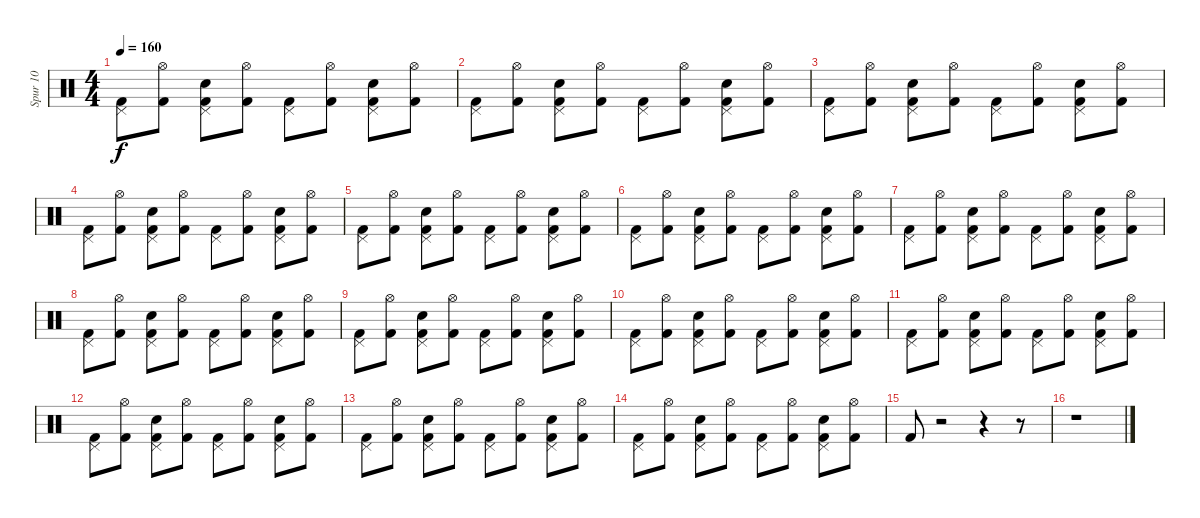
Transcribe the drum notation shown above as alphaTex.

\track ("Spur 10" "Spur 10") {instrument percussion}
\staff {score}
\articulation defaults
\ts (4 4)
\tempo 160
\clef neutral
\ks c
("Kick (hit) 2" "Pedal Hi-Hat (hit)").8{dy f} ("Kick (hit) 2" "Hi-Hat (open)").8 ("Pedal Hi-Hat (hit)" "Kick (hit) 2" "Snare (hit) 2").8 ("Kick (hit) 2" "Hi-Hat (open)").8 ("Kick (hit) 2" "Pedal Hi-Hat (hit)").8 ("Hi-Hat (open)" "Kick (hit) 2").8 ("Kick (hit) 2" "Snare (hit) 2" "Pedal Hi-Hat (hit)").8 ("Hi-Hat (open)" "Kick (hit) 2").8 |
("Pedal Hi-Hat (hit)" "Kick (hit) 2").8 ("Hi-Hat (open)" "Kick (hit) 2").8 ("Kick (hit) 2" "Pedal Hi-Hat (hit)" "Snare (hit) 2").8 ("Kick (hit) 2" "Hi-Hat (open)").8 ("Pedal Hi-Hat (hit)" "Kick (hit) 2").8 ("Hi-Hat (open)" "Kick (hit) 2").8 ("Pedal Hi-Hat (hit)" "Kick (hit) 2" "Snare (hit) 2").8 ("Hi-Hat (open)" "Kick (hit) 2").8 |
("Pedal Hi-Hat (hit)" "Kick (hit) 2").8 ("Kick (hit) 2" "Hi-Hat (open)").8 ("Kick (hit) 2" "Snare (hit) 2" "Pedal Hi-Hat (hit)").8 ("Hi-Hat (open)" "Kick (hit) 2").8 ("Kick (hit) 2" "Pedal Hi-Hat (hit)").8 ("Hi-Hat (open)" "Kick (hit) 2").8 ("Kick (hit) 2" "Pedal Hi-Hat (hit)" "Snare (hit) 2").8 ("Hi-Hat (open)" "Kick (hit) 2").8 |
("Kick (hit) 2" "Pedal Hi-Hat (hit)").8 ("Hi-Hat (open)" "Kick (hit) 2").8 ("Snare (hit) 2" "Pedal Hi-Hat (hit)" "Kick (hit) 2").8 ("Hi-Hat (open)" "Kick (hit) 2").8 ("Kick (hit) 2" "Pedal Hi-Hat (hit)").8 ("Kick (hit) 2" "Hi-Hat (open)").8 ("Pedal Hi-Hat (hit)" "Kick (hit) 2" "Snare (hit) 2").8 ("Kick (hit) 2" "Hi-Hat (open)").8 |
("Kick (hit) 2" "Pedal Hi-Hat (hit)").8 ("Kick (hit) 2" "Hi-Hat (open)").8 ("Pedal Hi-Hat (hit)" "Kick (hit) 2" "Snare (hit) 2").8 ("Hi-Hat (open)" "Kick (hit) 2").8 ("Kick (hit) 2" "Pedal Hi-Hat (hit)").8 ("Hi-Hat (open)" "Kick (hit) 2").8 ("Pedal Hi-Hat (hit)" "Snare (hit) 2" "Kick (hit) 2").8 ("Hi-Hat (open)" "Kick (hit) 2").8 |
("Kick (hit) 2" "Pedal Hi-Hat (hit)").8 ("Kick (hit) 2" "Hi-Hat (open)").8 ("Snare (hit) 2" "Kick (hit) 2" "Pedal Hi-Hat (hit)").8 ("Hi-Hat (open)" "Kick (hit) 2").8 ("Kick (hit) 2" "Pedal Hi-Hat (hit)").8 ("Hi-Hat (open)" "Kick (hit) 2").8 ("Pedal Hi-Hat (hit)" "Kick (hit) 2" "Snare (hit) 2").8 ("Kick (hit) 2" "Hi-Hat (open)").8 |
("Kick (hit) 2" "Pedal Hi-Hat (hit)").8 ("Hi-Hat (open)" "Kick (hit) 2").8 ("Snare (hit) 2" "Pedal Hi-Hat (hit)" "Kick (hit) 2").8 ("Hi-Hat (open)" "Kick (hit) 2").8 ("Pedal Hi-Hat (hit)" "Kick (hit) 2").8 ("Kick (hit) 2" "Hi-Hat (open)").8 ("Pedal Hi-Hat (hit)" "Kick (hit) 2" "Snare (hit) 2").8 ("Kick (hit) 2" "Hi-Hat (open)").8 |
("Kick (hit) 2" "Pedal Hi-Hat (hit)").8 ("Kick (hit) 2" "Hi-Hat (open)").8 ("Kick (hit) 2" "Pedal Hi-Hat (hit)" "Snare (hit) 2").8 ("Kick (hit) 2" "Hi-Hat (open)").8 ("Pedal Hi-Hat (hit)" "Kick (hit) 2").8 ("Hi-Hat (open)" "Kick (hit) 2").8 ("Pedal Hi-Hat (hit)" "Snare (hit) 2" "Kick (hit) 2").8 ("Hi-Hat (open)" "Kick (hit) 2").8 |
("Kick (hit) 2" "Pedal Hi-Hat (hit)").8 ("Hi-Hat (open)" "Kick (hit) 2").8 ("Snare (hit) 2" "Pedal Hi-Hat (hit)" "Kick (hit) 2").8 ("Hi-Hat (open)" "Kick (hit) 2").8 ("Pedal Hi-Hat (hit)" "Kick (hit) 2").8 ("Hi-Hat (open)" "Kick (hit) 2").8 ("Kick (hit) 2" "Pedal Hi-Hat (hit)" "Snare (hit) 2").8 ("Hi-Hat (open)" "Kick (hit) 2").8 |
("Kick (hit) 2" "Pedal Hi-Hat (hit)").8 ("Hi-Hat (open)" "Kick (hit) 2").8 ("Pedal Hi-Hat (hit)" "Snare (hit) 2" "Kick (hit) 2").8 ("Kick (hit) 2" "Hi-Hat (open)").8 ("Pedal Hi-Hat (hit)" "Kick (hit) 2").8 ("Kick (hit) 2" "Hi-Hat (open)").8 ("Kick (hit) 2" "Snare (hit) 2" "Pedal Hi-Hat (hit)").8 ("Hi-Hat (open)" "Kick (hit) 2").8 |
("Pedal Hi-Hat (hit)" "Kick (hit) 2").8 ("Kick (hit) 2" "Hi-Hat (open)").8 ("Kick (hit) 2" "Pedal Hi-Hat (hit)" "Snare (hit) 2").8 ("Kick (hit) 2" "Hi-Hat (open)").8 ("Pedal Hi-Hat (hit)" "Kick (hit) 2").8 ("Kick (hit) 2" "Hi-Hat (open)").8 ("Snare (hit) 2" "Kick (hit) 2" "Pedal Hi-Hat (hit)").8 ("Kick (hit) 2" "Hi-Hat (open)").8 |
("Kick (hit) 2" "Pedal Hi-Hat (hit)").8 ("Hi-Hat (open)" "Kick (hit) 2").8 ("Snare (hit) 2" "Pedal Hi-Hat (hit)" "Kick (hit) 2").8 ("Hi-Hat (open)" "Kick (hit) 2").8 ("Pedal Hi-Hat (hit)" "Kick (hit) 2").8 ("Kick (hit) 2" "Hi-Hat (open)").8 ("Kick (hit) 2" "Snare (hit) 2" "Pedal Hi-Hat (hit)").8 ("Hi-Hat (open)" "Kick (hit) 2").8 |
("Kick (hit) 2" "Pedal Hi-Hat (hit)").8 ("Hi-Hat (open)" "Kick (hit) 2").8 ("Kick (hit) 2" "Pedal Hi-Hat (hit)" "Snare (hit) 2").8 ("Kick (hit) 2" "Hi-Hat (open)").8 ("Pedal Hi-Hat (hit)" "Kick (hit) 2").8 ("Hi-Hat (open)" "Kick (hit) 2").8 ("Snare (hit) 2" "Pedal Hi-Hat (hit)" "Kick (hit) 2").8 ("Hi-Hat (open)" "Kick (hit) 2").8 |
("Pedal Hi-Hat (hit)" "Kick (hit) 2").8 ("Hi-Hat (open)" "Kick (hit) 2").8 ("Kick (hit) 2" "Snare (hit) 2" "Pedal Hi-Hat (hit)").8 ("Kick (hit) 2" "Hi-Hat (open)").8 ("Kick (hit) 2" "Pedal Hi-Hat (hit)").8 ("Hi-Hat (open)" "Kick (hit) 2").8 ("Snare (hit) 2" "Pedal Hi-Hat (hit)" "Kick (hit) 2").8 ("Hi-Hat (open)" "Kick (hit) 2").8 |
"Kick (hit) 2".8 r.2 r.4 r.8 |
r.1
